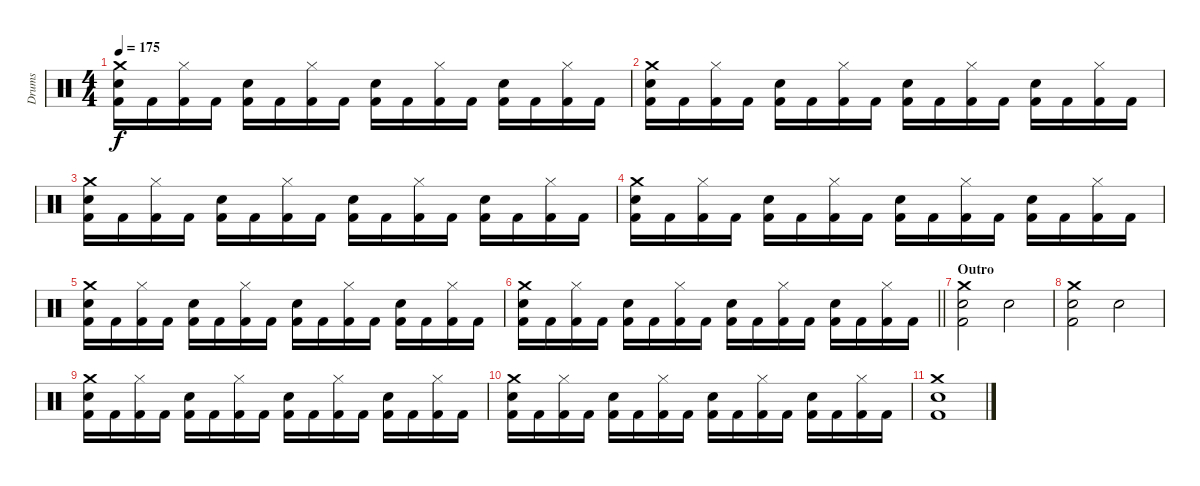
\track ("Drums" "Drums") {instrument percussion}
\staff {score}
\articulation defaults
\ts (4 4)
\tempo 175
\clef neutral
\ks c
("Kick (hit) 2" "Snare (hit) 2" "Crash medium (hit)").16{dy f} "Kick (hit) 2".16 ("Kick (hit) 2" "Hi-Hat (closed)").16 "Kick (hit) 2".16 ("Kick (hit) 2" "Snare (hit) 2").16 "Kick (hit) 2".16 ("Kick (hit) 2" "Hi-Hat (closed)").16 "Kick (hit) 2".16 ("Kick (hit) 2" "Snare (hit) 2").16 "Kick (hit) 2".16 ("Kick (hit) 2" "Hi-Hat (closed)").16 "Kick (hit) 2".16 ("Kick (hit) 2" "Snare (hit) 2").16 "Kick (hit) 2".16 ("Kick (hit) 2" "Hi-Hat (closed)").16 "Kick (hit) 2".16 |
("Kick (hit) 2" "Snare (hit) 2" "Crash medium (hit)").16 "Kick (hit) 2".16 ("Kick (hit) 2" "Hi-Hat (closed)").16 "Kick (hit) 2".16 ("Kick (hit) 2" "Snare (hit) 2").16 "Kick (hit) 2".16 ("Kick (hit) 2" "Hi-Hat (closed)").16 "Kick (hit) 2".16 ("Kick (hit) 2" "Snare (hit) 2").16 "Kick (hit) 2".16 ("Kick (hit) 2" "Hi-Hat (closed)").16 "Kick (hit) 2".16 ("Kick (hit) 2" "Snare (hit) 2").16 "Kick (hit) 2".16 ("Kick (hit) 2" "Hi-Hat (closed)").16 "Kick (hit) 2".16 |
("Kick (hit) 2" "Snare (hit) 2" "Crash medium (hit)").16 "Kick (hit) 2".16 ("Kick (hit) 2" "Hi-Hat (closed)").16 "Kick (hit) 2".16 ("Kick (hit) 2" "Snare (hit) 2").16 "Kick (hit) 2".16 ("Kick (hit) 2" "Hi-Hat (closed)").16 "Kick (hit) 2".16 ("Kick (hit) 2" "Snare (hit) 2").16 "Kick (hit) 2".16 ("Kick (hit) 2" "Hi-Hat (closed)").16 "Kick (hit) 2".16 ("Kick (hit) 2" "Snare (hit) 2").16 "Kick (hit) 2".16 ("Kick (hit) 2" "Hi-Hat (closed)").16 "Kick (hit) 2".16 |
("Kick (hit) 2" "Snare (hit) 2" "Crash medium (hit)").16 "Kick (hit) 2".16 ("Kick (hit) 2" "Hi-Hat (closed)").16 "Kick (hit) 2".16 ("Kick (hit) 2" "Snare (hit) 2").16 "Kick (hit) 2".16 ("Kick (hit) 2" "Hi-Hat (closed)").16 "Kick (hit) 2".16 ("Kick (hit) 2" "Snare (hit) 2").16 "Kick (hit) 2".16 ("Kick (hit) 2" "Hi-Hat (closed)").16 "Kick (hit) 2".16 ("Kick (hit) 2" "Snare (hit) 2").16 "Kick (hit) 2".16 ("Kick (hit) 2" "Hi-Hat (closed)").16 "Kick (hit) 2".16 |
("Kick (hit) 2" "Snare (hit) 2" "Crash medium (hit)").16 "Kick (hit) 2".16 ("Kick (hit) 2" "Hi-Hat (closed)").16 "Kick (hit) 2".16 ("Kick (hit) 2" "Snare (hit) 2").16 "Kick (hit) 2".16 ("Kick (hit) 2" "Hi-Hat (closed)").16 "Kick (hit) 2".16 ("Kick (hit) 2" "Snare (hit) 2").16 "Kick (hit) 2".16 ("Kick (hit) 2" "Hi-Hat (closed)").16 "Kick (hit) 2".16 ("Kick (hit) 2" "Snare (hit) 2").16 "Kick (hit) 2".16 ("Kick (hit) 2" "Hi-Hat (closed)").16 "Kick (hit) 2".16 |
\barLineRight lightlight
("Kick (hit) 2" "Snare (hit) 2" "Crash medium (hit)").16 "Kick (hit) 2".16 ("Kick (hit) 2" "Hi-Hat (closed)").16 "Kick (hit) 2".16 ("Kick (hit) 2" "Snare (hit) 2").16 "Kick (hit) 2".16 ("Kick (hit) 2" "Hi-Hat (closed)").16 "Kick (hit) 2".16 ("Kick (hit) 2" "Snare (hit) 2").16 "Kick (hit) 2".16 ("Kick (hit) 2" "Hi-Hat (closed)").16 "Kick (hit) 2".16 ("Kick (hit) 2" "Snare (hit) 2").16 "Kick (hit) 2".16 ("Kick (hit) 2" "Hi-Hat (closed)").16 "Kick (hit) 2".16 |
\section ("" "Outro")
("Kick (hit) 2" "Snare (hit) 2" "Crash medium (hit)").2 "Snare (hit) 2".2 |
("Kick (hit) 2" "Snare (hit) 2" "Crash medium (hit)").2 "Snare (hit) 2".2 |
("Kick (hit) 2" "Snare (hit) 2" "Crash medium (hit)").16 "Kick (hit) 2".16 ("Kick (hit) 2" "Hi-Hat (closed)").16 "Kick (hit) 2".16 ("Kick (hit) 2" "Snare (hit) 2").16 "Kick (hit) 2".16 ("Kick (hit) 2" "Hi-Hat (closed)").16 "Kick (hit) 2".16 ("Kick (hit) 2" "Snare (hit) 2").16 "Kick (hit) 2".16 ("Kick (hit) 2" "Hi-Hat (closed)").16 "Kick (hit) 2".16 ("Kick (hit) 2" "Snare (hit) 2").16 "Kick (hit) 2".16 ("Kick (hit) 2" "Hi-Hat (closed)").16 "Kick (hit) 2".16 |
("Kick (hit) 2" "Snare (hit) 2" "Crash medium (hit)").16 "Kick (hit) 2".16 ("Kick (hit) 2" "Hi-Hat (closed)").16 "Kick (hit) 2".16 ("Kick (hit) 2" "Snare (hit) 2").16 "Kick (hit) 2".16 ("Kick (hit) 2" "Hi-Hat (closed)").16 "Kick (hit) 2".16 ("Kick (hit) 2" "Snare (hit) 2").16 "Kick (hit) 2".16 ("Kick (hit) 2" "Hi-Hat (closed)").16 "Kick (hit) 2".16 ("Kick (hit) 2" "Snare (hit) 2").16 "Kick (hit) 2".16 ("Kick (hit) 2" "Hi-Hat (closed)").16 "Kick (hit) 2".16 |
("Kick (hit) 2" "Snare (hit) 2" "Crash medium (hit)").1
